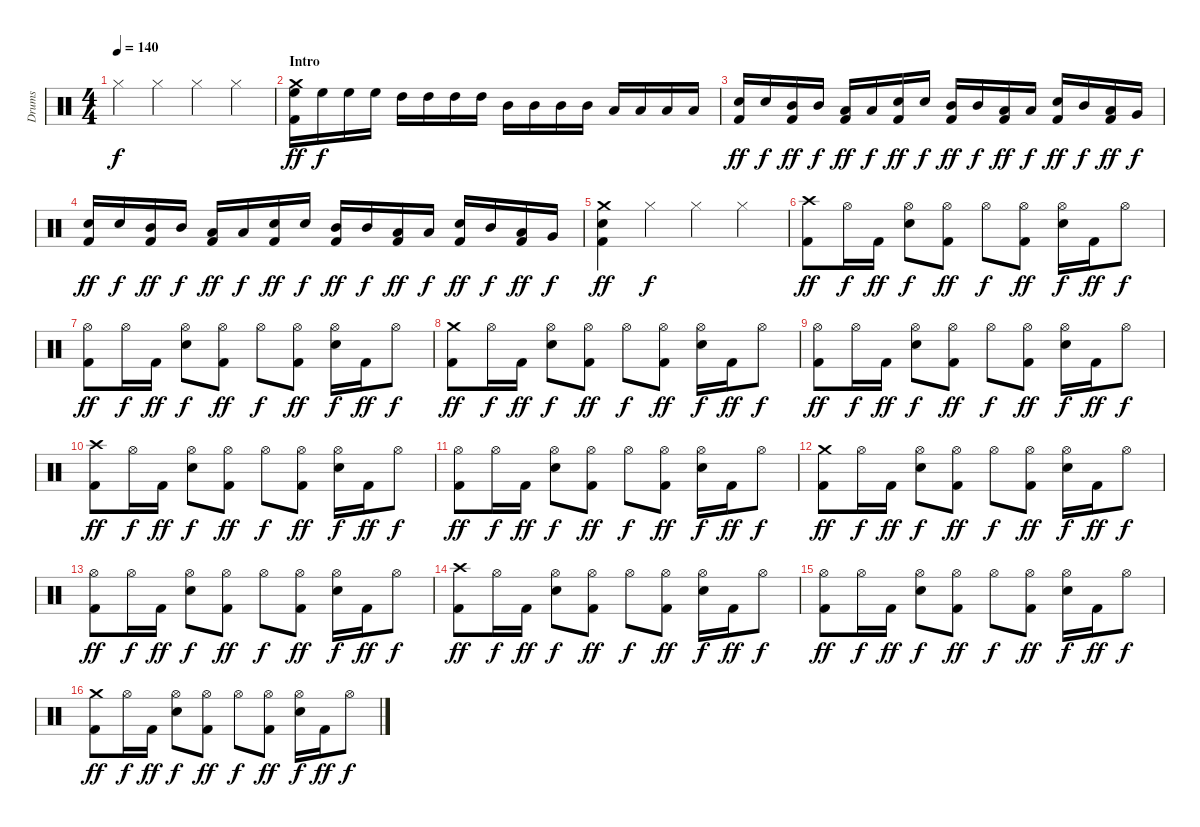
\track ("Drums" "Drums") {instrument percussion}
\staff {score}
\articulation defaults
\ts (4 4)
\tempo 140
\clef neutral
\ks c "Hi-Hat (closed)".4{dy f} "Hi-Hat (closed)".4 "Hi-Hat (closed)".4 "Hi-Hat (closed)".4
|
\section ("" "Intro")
("Crash medium (hit)" "High Floor Tom (hit)" "Kick (hit) 2").16{dy ff} "High Floor Tom (hit)".16{dy f} "High Floor Tom (hit)".16 "High Floor Tom (hit)".16 "High Tom (hit)".16 "High Tom (hit)".16 "High Tom (hit)".16 "High Tom (hit)".16 "Mid Tom (hit)".16 "Mid Tom (hit)".16 "Mid Tom (hit)".16 "Mid Tom (hit)".16 "Low Tom (hit)".16 "Low Tom (hit)".16 "Low Tom (hit)".16 "Low Tom (hit)".16 |
("Electric Snare (hit)" "Kick (hit) 2").16{dy ff} "Electric Snare (hit)".16{dy f} ("Mid Tom (hit)" "Kick (hit) 2").16{dy ff} "Mid Tom (hit)".16{dy f} ("Low Tom (hit)" "Kick (hit) 2").16{dy ff} "Low Tom (hit)".16{dy f} ("Electric Snare (hit)" "Kick (hit) 2").16{dy ff} "Electric Snare (hit)".16{dy f} ("Mid Tom (hit)" "Kick (hit) 2").16{dy ff} "Mid Tom (hit)".16{dy f} ("Low Tom (hit)" "Kick (hit) 2").16{dy ff} "Low Tom (hit)".16{dy f} ("Electric Snare (hit)" "Kick (hit) 2").16{dy ff} "Mid Tom (hit)".16{dy f} ("Low Tom (hit)" "Kick (hit) 2").16{dy ff} "Very Low Tom (hit)".16{dy f} |
("Electric Snare (hit)" "Kick (hit) 2").16{dy ff} "Electric Snare (hit)".16{dy f} ("Mid Tom (hit)" "Kick (hit) 2").16{dy ff} "Mid Tom (hit)".16{dy f} ("Low Tom (hit)" "Kick (hit) 2").16{dy ff} "Low Tom (hit)".16{dy f} ("Electric Snare (hit)" "Kick (hit) 2").16{dy ff} "Electric Snare (hit)".16{dy f} ("Mid Tom (hit)" "Kick (hit) 2").16{dy ff} "Mid Tom (hit)".16{dy f} ("Low Tom (hit)" "Kick (hit) 2").16{dy ff} "Low Tom (hit)".16{dy f} ("Electric Snare (hit)" "Kick (hit) 2").16{dy ff} "Mid Tom (hit)".16{dy f} ("Low Tom (hit)" "Kick (hit) 2").16{dy ff} "Very Low Tom (hit)".16{dy f} |
("Crash medium (hit)" "Electric Snare (hit)" "Kick (hit) 2").4{dy ff} "Hi-Hat (closed)".4{dy f} "Hi-Hat (closed)".4 "Hi-Hat (closed)".4 |
("Crash high (hit)" "Kick (hit) 2").8{dy ff} "Hi-Hat (open)".16{dy f} "Kick (hit) 2".16{dy ff} ("Hi-Hat (open)" "Electric Snare (hit)").8{dy f} ("Hi-Hat (open)" "Kick (hit) 2").8{dy ff} "Hi-Hat (open)".8{dy f} ("Hi-Hat (open)" "Kick (hit) 2").8{dy ff} ("Hi-Hat (open)" "Electric Snare (hit)").16{dy f} "Kick (hit) 2".16{dy ff} "Hi-Hat (open)".8{dy f} |
("Hi-Hat (open)" "Kick (hit) 2").8{dy ff} "Hi-Hat (open)".16{dy f} "Kick (hit) 2".16{dy ff} ("Hi-Hat (open)" "Electric Snare (hit)").8{dy f} ("Hi-Hat (open)" "Kick (hit) 2").8{dy ff} "Hi-Hat (open)".8{dy f} ("Hi-Hat (open)" "Kick (hit) 2").8{dy ff} ("Hi-Hat (open)" "Electric Snare (hit)").16{dy f} "Kick (hit) 2".16{dy ff} "Hi-Hat (open)".8{dy f} |
("Crash medium (hit)" "Kick (hit) 2").8{dy ff} "Hi-Hat (open)".16{dy f} "Kick (hit) 2".16{dy ff} ("Hi-Hat (open)" "Electric Snare (hit)").8{dy f} ("Hi-Hat (open)" "Kick (hit) 2").8{dy ff} "Hi-Hat (open)".8{dy f} ("Hi-Hat (open)" "Kick (hit) 2").8{dy ff} ("Hi-Hat (open)" "Electric Snare (hit)").16{dy f} "Kick (hit) 2".16{dy ff} "Hi-Hat (open)".8{dy f} |
("Hi-Hat (open)" "Kick (hit) 2").8{dy ff} "Hi-Hat (open)".16{dy f} "Kick (hit) 2".16{dy ff} ("Hi-Hat (open)" "Electric Snare (hit)").8{dy f} ("Hi-Hat (open)" "Kick (hit) 2").8{dy ff} "Hi-Hat (open)".8{dy f} ("Hi-Hat (open)" "Kick (hit) 2").8{dy ff} ("Hi-Hat (open)" "Electric Snare (hit)").16{dy f} "Kick (hit) 2".16{dy ff} "Hi-Hat (open)".8{dy f} |
("Crash high (hit)" "Kick (hit) 2").8{dy ff} "Hi-Hat (open)".16{dy f} "Kick (hit) 2".16{dy ff} ("Hi-Hat (open)" "Electric Snare (hit)").8{dy f} ("Hi-Hat (open)" "Kick (hit) 2").8{dy ff} "Hi-Hat (open)".8{dy f} ("Hi-Hat (open)" "Kick (hit) 2").8{dy ff} ("Hi-Hat (open)" "Electric Snare (hit)").16{dy f} "Kick (hit) 2".16{dy ff} "Hi-Hat (open)".8{dy f} |
("Hi-Hat (open)" "Kick (hit) 2").8{dy ff} "Hi-Hat (open)".16{dy f} "Kick (hit) 2".16{dy ff} ("Hi-Hat (open)" "Electric Snare (hit)").8{dy f} ("Hi-Hat (open)" "Kick (hit) 2").8{dy ff} "Hi-Hat (open)".8{dy f} ("Hi-Hat (open)" "Kick (hit) 2").8{dy ff} ("Hi-Hat (open)" "Electric Snare (hit)").16{dy f} "Kick (hit) 2".16{dy ff} "Hi-Hat (open)".8{dy f} |
("Crash medium (hit)" "Kick (hit) 2").8{dy ff} "Hi-Hat (open)".16{dy f} "Kick (hit) 2".16{dy ff} ("Hi-Hat (open)" "Electric Snare (hit)").8{dy f} ("Hi-Hat (open)" "Kick (hit) 2").8{dy ff} "Hi-Hat (open)".8{dy f} ("Hi-Hat (open)" "Kick (hit) 2").8{dy ff} ("Hi-Hat (open)" "Electric Snare (hit)").16{dy f} "Kick (hit) 2".16{dy ff} "Hi-Hat (open)".8{dy f} |
("Hi-Hat (open)" "Kick (hit) 2").8{dy ff} "Hi-Hat (open)".16{dy f} "Kick (hit) 2".16{dy ff} ("Hi-Hat (open)" "Electric Snare (hit)").8{dy f} ("Hi-Hat (open)" "Kick (hit) 2").8{dy ff} "Hi-Hat (open)".8{dy f} ("Hi-Hat (open)" "Kick (hit) 2").8{dy ff} ("Hi-Hat (open)" "Electric Snare (hit)").16{dy f} "Kick (hit) 2".16{dy ff} "Hi-Hat (open)".8{dy f} |
("Crash high (hit)" "Kick (hit) 2").8{dy ff} "Hi-Hat (open)".16{dy f} "Kick (hit) 2".16{dy ff} ("Hi-Hat (open)" "Electric Snare (hit)").8{dy f} ("Hi-Hat (open)" "Kick (hit) 2").8{dy ff} "Hi-Hat (open)".8{dy f} ("Hi-Hat (open)" "Kick (hit) 2").8{dy ff} ("Hi-Hat (open)" "Electric Snare (hit)").16{dy f} "Kick (hit) 2".16{dy ff} "Hi-Hat (open)".8{dy f} |
("Hi-Hat (open)" "Kick (hit) 2").8{dy ff} "Hi-Hat (open)".16{dy f} "Kick (hit) 2".16{dy ff} ("Hi-Hat (open)" "Electric Snare (hit)").8{dy f} ("Hi-Hat (open)" "Kick (hit) 2").8{dy ff} "Hi-Hat (open)".8{dy f} ("Hi-Hat (open)" "Kick (hit) 2").8{dy ff} ("Hi-Hat (open)" "Electric Snare (hit)").16{dy f} "Kick (hit) 2".16{dy ff} "Hi-Hat (open)".8{dy f} |
("Crash medium (hit)" "Kick (hit) 2").8{dy ff} "Hi-Hat (open)".16{dy f} "Kick (hit) 2".16{dy ff} ("Hi-Hat (open)" "Electric Snare (hit)").8{dy f} ("Hi-Hat (open)" "Kick (hit) 2").8{dy ff} "Hi-Hat (open)".8{dy f} ("Hi-Hat (open)" "Kick (hit) 2").8{dy ff} ("Hi-Hat (open)" "Electric Snare (hit)").16{dy f} "Kick (hit) 2".16{dy ff} "Hi-Hat (open)".8{dy f}
